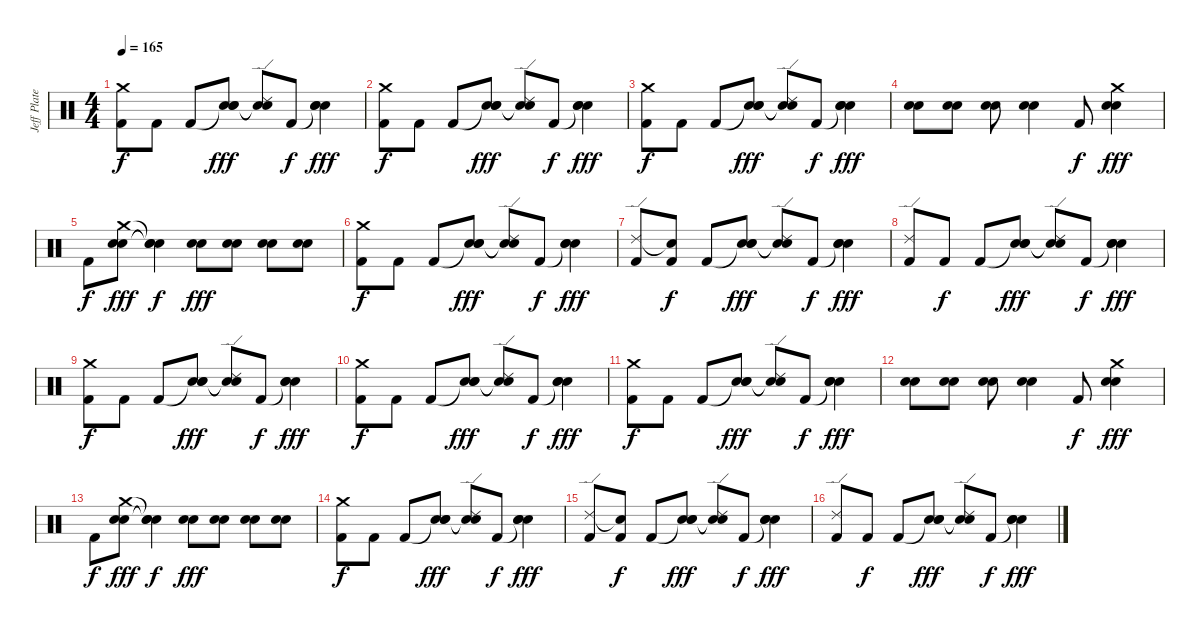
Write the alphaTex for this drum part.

\track ("Jeff Plate" "Jeff Plate") {instrument percussion}
\staff {score}
\articulation defaults
\ts (4 4)
\tempo 165
\clef neutral
\ks c
("Crash medium (hit)" "Kick (hit) 2").8{dy f} "Kick (hit) 2".8 "Kick (hit) 2".8 ("Snare (hit)"{t} "Electric Snare (hit)" "Electric Snare (hit)").8{dy fff} ("Ride (edge) 2" "Snare (hit)"{t} "Snare (hit)"{t}).8 "Kick (hit) 2".8{dy f} ("Snare (hit)"{t} "Electric Snare (hit)" "Electric Snare (hit)").4{dy fff} |
("Crash medium (hit)" "Kick (hit) 2").8{dy f} "Kick (hit) 2".8 "Kick (hit) 2".8 ("Snare (hit)"{t} "Electric Snare (hit)" "Electric Snare (hit)").8{dy fff} ("Ride (edge) 2" "Snare (hit)"{t} "Snare (hit)"{t}).8 "Kick (hit) 2".8{dy f} ("Snare (hit)"{t} "Electric Snare (hit)" "Electric Snare (hit)").4{dy fff} |
("Crash medium (hit)" "Kick (hit) 2").8{dy f} "Kick (hit) 2".8 "Kick (hit) 2".8 ("Snare (hit)"{t} "Electric Snare (hit)" "Electric Snare (hit)").8{dy fff} ("Ride (edge) 2" "Snare (hit)"{t} "Snare (hit)"{t}).8 "Kick (hit) 2".8{dy f} ("Snare (hit)"{t} "Electric Snare (hit)" "Electric Snare (hit)").4{dy fff} |
("Electric Snare (hit)" "Electric Snare (hit)").8 ("Electric Snare (hit)" "Electric Snare (hit)").8 ("Electric Snare (hit)" "Electric Snare (hit)").8 ("Electric Snare (hit)" "Electric Snare (hit)").4 "Kick (hit) 2".8{dy f} ("Crash medium (hit)" "Electric Snare (hit)" "Electric Snare (hit)").4{dy fff} |
"Kick (hit) 2".8{dy f} ("Crash medium (hit)" "Electric Snare (hit)" "Electric Snare (hit)").8{dy fff} ("Snare (hit)"{t} "Snare (hit)"{t} "Snare (hit)"{t}).4{dy f} ("Electric Snare (hit)" "Electric Snare (hit)").8{dy fff} ("Electric Snare (hit)" "Electric Snare (hit)").8 ("Electric Snare (hit)" "Electric Snare (hit)").8 ("Electric Snare (hit)" "Electric Snare (hit)").8 |
("Crash medium (hit)" "Kick (hit) 2").8{dy f} "Kick (hit) 2".8 "Kick (hit) 2".8 ("Snare (hit)"{t} "Electric Snare (hit)" "Electric Snare (hit)").8{dy fff} ("Ride (edge) 2" "Snare (hit)"{t} "Snare (hit)"{t}).8 "Kick (hit) 2".8{dy f} ("Snare (hit)"{t} "Electric Snare (hit)" "Electric Snare (hit)").4{dy fff} |
("Ride (edge) 2" "Kick (hit) 2").8 ("Snare (hit)"{t} "Kick (hit) 2").8{dy f} "Kick (hit) 2".8 ("Snare (hit)"{t} "Electric Snare (hit)" "Electric Snare (hit)").8{dy fff} ("Ride (edge) 2" "Snare (hit)"{t} "Snare (hit)"{t}).8 "Kick (hit) 2".8{dy f} ("Snare (hit)"{t} "Electric Snare (hit)" "Electric Snare (hit)").4{dy fff} |
("Ride (edge) 2" "Kick (hit) 2").8 "Kick (hit) 2".8{dy f} "Kick (hit) 2".8 ("Snare (hit)"{t} "Electric Snare (hit)" "Electric Snare (hit)").8{dy fff} ("Ride (edge) 2" "Snare (hit)"{t} "Snare (hit)"{t}).8 "Kick (hit) 2".8{dy f} ("Snare (hit)"{t} "Electric Snare (hit)" "Electric Snare (hit)").4{dy fff} |
("Crash medium (hit)" "Kick (hit) 2").8{dy f} "Kick (hit) 2".8 "Kick (hit) 2".8 ("Snare (hit)"{t} "Electric Snare (hit)" "Electric Snare (hit)").8{dy fff} ("Ride (edge) 2" "Snare (hit)"{t} "Snare (hit)"{t}).8 "Kick (hit) 2".8{dy f} ("Snare (hit)"{t} "Electric Snare (hit)" "Electric Snare (hit)").4{dy fff} |
("Crash medium (hit)" "Kick (hit) 2").8{dy f} "Kick (hit) 2".8 "Kick (hit) 2".8 ("Snare (hit)"{t} "Electric Snare (hit)" "Electric Snare (hit)").8{dy fff} ("Ride (edge) 2" "Snare (hit)"{t} "Snare (hit)"{t}).8 "Kick (hit) 2".8{dy f} ("Snare (hit)"{t} "Electric Snare (hit)" "Electric Snare (hit)").4{dy fff} |
("Crash medium (hit)" "Kick (hit) 2").8{dy f} "Kick (hit) 2".8 "Kick (hit) 2".8 ("Snare (hit)"{t} "Electric Snare (hit)" "Electric Snare (hit)").8{dy fff} ("Ride (edge) 2" "Snare (hit)"{t} "Snare (hit)"{t}).8 "Kick (hit) 2".8{dy f} ("Snare (hit)"{t} "Electric Snare (hit)" "Electric Snare (hit)").4{dy fff} |
("Electric Snare (hit)" "Electric Snare (hit)").8 ("Electric Snare (hit)" "Electric Snare (hit)").8 ("Electric Snare (hit)" "Electric Snare (hit)").8 ("Electric Snare (hit)" "Electric Snare (hit)").4 "Kick (hit) 2".8{dy f} ("Crash medium (hit)" "Electric Snare (hit)" "Electric Snare (hit)").4{dy fff} |
"Kick (hit) 2".8{dy f} ("Crash medium (hit)" "Electric Snare (hit)" "Electric Snare (hit)").8{dy fff} ("Snare (hit)"{t} "Snare (hit)"{t} "Snare (hit)"{t}).4{dy f} ("Electric Snare (hit)" "Electric Snare (hit)").8{dy fff} ("Electric Snare (hit)" "Electric Snare (hit)").8 ("Electric Snare (hit)" "Electric Snare (hit)").8 ("Electric Snare (hit)" "Electric Snare (hit)").8 |
("Crash medium (hit)" "Kick (hit) 2").8{dy f} "Kick (hit) 2".8 "Kick (hit) 2".8 ("Snare (hit)"{t} "Electric Snare (hit)" "Electric Snare (hit)").8{dy fff} ("Ride (edge) 2" "Snare (hit)"{t} "Snare (hit)"{t}).8 "Kick (hit) 2".8{dy f} ("Snare (hit)"{t} "Electric Snare (hit)" "Electric Snare (hit)").4{dy fff} |
("Ride (edge) 2" "Kick (hit) 2").8 ("Snare (hit)"{t} "Kick (hit) 2").8{dy f} "Kick (hit) 2".8 ("Snare (hit)"{t} "Electric Snare (hit)" "Electric Snare (hit)").8{dy fff} ("Ride (edge) 2" "Snare (hit)"{t} "Snare (hit)"{t}).8 "Kick (hit) 2".8{dy f} ("Snare (hit)"{t} "Electric Snare (hit)" "Electric Snare (hit)").4{dy fff} |
("Ride (edge) 2" "Kick (hit) 2").8 "Kick (hit) 2".8{dy f} "Kick (hit) 2".8 ("Snare (hit)"{t} "Electric Snare (hit)" "Electric Snare (hit)").8{dy fff} ("Ride (edge) 2" "Snare (hit)"{t} "Snare (hit)"{t}).8 "Kick (hit) 2".8{dy f} ("Snare (hit)"{t} "Electric Snare (hit)" "Electric Snare (hit)").4{dy fff}
